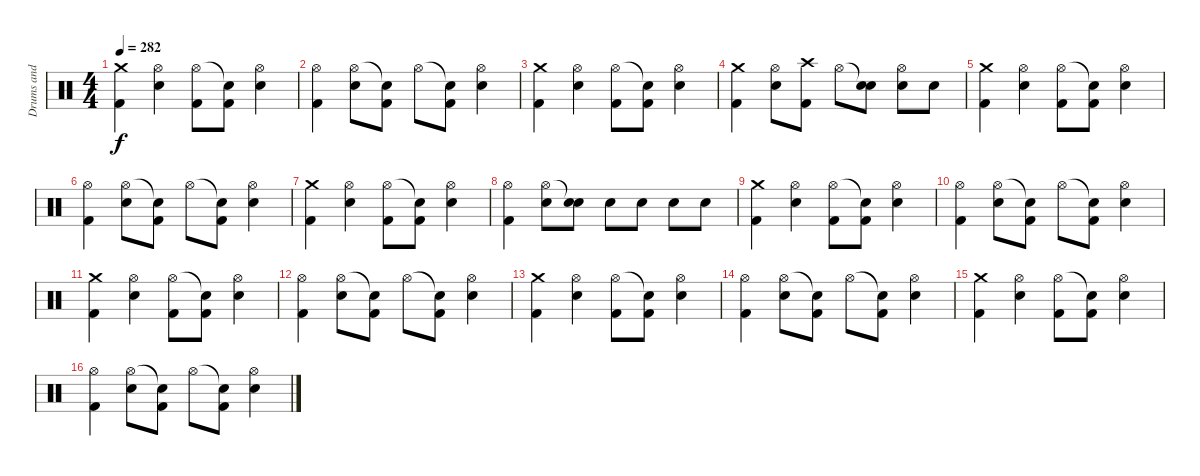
\track ("Drums and Percussion" "Drums and ") {instrument percussion}
\staff {score}
\articulation defaults
\ts (4 4)
\tempo 282
\clef neutral
\ks c
("Crash medium (hit)" "Kick (hit) 2").4{dy f} ("Hi-Hat (open)" "Snare (hit) 2").4 ("Hi-Hat (open)" "Kick (hit) 2").8 ("Snare (hit)"{t} "Kick (hit) 2").8 ("Hi-Hat (open)" "Snare (hit) 2").4 |
("Hi-Hat (open)" "Kick (hit) 2").4 ("Hi-Hat (open)" "Snare (hit) 2").8 ("Snare (hit)"{t} "Kick (hit) 2").8 "Hi-Hat (open)".8 ("Snare (hit)"{t} "Kick (hit) 2").8 ("Hi-Hat (open)" "Snare (hit) 2").4 |
("Crash medium (hit)" "Kick (hit) 2").4 ("Hi-Hat (open)" "Snare (hit) 2").4 ("Hi-Hat (open)" "Kick (hit) 2").8 ("Snare (hit)"{t} "Kick (hit) 2").8 ("Hi-Hat (open)" "Snare (hit) 2").4 |
("Crash medium (hit)" "Kick (hit) 2").4 ("Hi-Hat (open)" "Snare (hit) 2").8 ("Crash high (hit)" "Kick (hit) 2").8 "Hi-Hat (open)".8 ("Snare (hit)"{t} "Snare (hit) 2").8 ("Hi-Hat (open)" "Snare (hit) 2").8 "Snare (hit) 2".8 |
("Crash medium (hit)" "Kick (hit) 2").4 ("Hi-Hat (open)" "Snare (hit) 2").4 ("Hi-Hat (open)" "Kick (hit) 2").8 ("Snare (hit)"{t} "Kick (hit) 2").8 ("Hi-Hat (open)" "Snare (hit) 2").4 |
("Hi-Hat (open)" "Kick (hit) 2").4 ("Hi-Hat (open)" "Snare (hit) 2").8 ("Snare (hit)"{t} "Kick (hit) 2").8 "Hi-Hat (open)".8 ("Snare (hit)"{t} "Kick (hit) 2").8 ("Hi-Hat (open)" "Snare (hit) 2").4 |
("Crash medium (hit)" "Kick (hit) 2").4 ("Hi-Hat (open)" "Snare (hit) 2").4 ("Hi-Hat (open)" "Kick (hit) 2").8 ("Snare (hit)"{t} "Kick (hit) 2").8 ("Hi-Hat (open)" "Snare (hit) 2").4 |
("Hi-Hat (open)" "Kick (hit) 2").4 ("Hi-Hat (open)" "Snare (hit) 2").8 ("Snare (hit)"{t} "Snare (hit) 2").8 "Snare (hit) 2".8 "Snare (hit) 2".8 "Snare (hit) 2".8 "Snare (hit) 2".8 |
("Crash medium (hit)" "Kick (hit) 2").4 ("Hi-Hat (open)" "Snare (hit) 2").4 ("Hi-Hat (open)" "Kick (hit) 2").8 ("Snare (hit)"{t} "Kick (hit) 2").8 ("Hi-Hat (open)" "Snare (hit) 2").4 |
("Hi-Hat (open)" "Kick (hit) 2").4 ("Hi-Hat (open)" "Snare (hit) 2").8 ("Snare (hit)"{t} "Kick (hit) 2").8 "Hi-Hat (open)".8 ("Snare (hit)"{t} "Kick (hit) 2").8 ("Hi-Hat (open)" "Snare (hit) 2").4 |
("Crash medium (hit)" "Kick (hit) 2").4 ("Hi-Hat (open)" "Snare (hit) 2").4 ("Hi-Hat (open)" "Kick (hit) 2").8 ("Snare (hit)"{t} "Kick (hit) 2").8 ("Hi-Hat (open)" "Snare (hit) 2").4 |
("Hi-Hat (open)" "Kick (hit) 2").4 ("Hi-Hat (open)" "Snare (hit) 2").8 ("Snare (hit)"{t} "Kick (hit) 2").8 "Hi-Hat (open)".8 ("Snare (hit)"{t} "Kick (hit) 2").8 ("Hi-Hat (open)" "Snare (hit) 2").4 |
("Crash medium (hit)" "Kick (hit) 2").4 ("Hi-Hat (open)" "Snare (hit) 2").4 ("Hi-Hat (open)" "Kick (hit) 2").8 ("Snare (hit)"{t} "Kick (hit) 2").8 ("Hi-Hat (open)" "Snare (hit) 2").4 |
("Hi-Hat (open)" "Kick (hit) 2").4 ("Hi-Hat (open)" "Snare (hit) 2").8 ("Snare (hit)"{t} "Kick (hit) 2").8 "Hi-Hat (open)".8 ("Snare (hit)"{t} "Kick (hit) 2").8 ("Hi-Hat (open)" "Snare (hit) 2").4 |
("Crash medium (hit)" "Kick (hit) 2").4 ("Hi-Hat (open)" "Snare (hit) 2").4 ("Hi-Hat (open)" "Kick (hit) 2").8 ("Snare (hit)"{t} "Kick (hit) 2").8 ("Hi-Hat (open)" "Snare (hit) 2").4 |
("Hi-Hat (open)" "Kick (hit) 2").4 ("Hi-Hat (open)" "Snare (hit) 2").8 ("Snare (hit)"{t} "Kick (hit) 2").8 "Hi-Hat (open)".8 ("Snare (hit)"{t} "Kick (hit) 2").8 ("Hi-Hat (open)" "Snare (hit) 2").4
